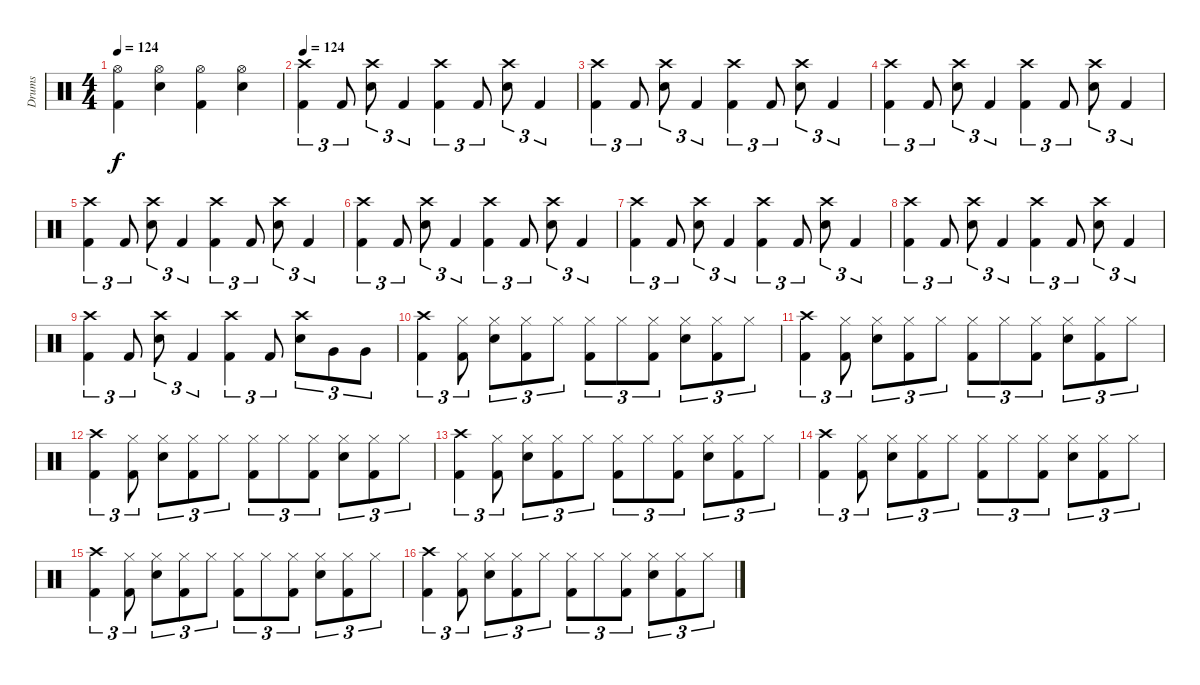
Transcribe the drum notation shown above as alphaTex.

\track ("Drums" "Drums") {instrument percussion}
\staff {score}
\articulation defaults
\ts (4 4)
\tempo 124
\clef neutral
\ks c
("Hi-Hat (open)" "Kick (hit) 2").4{dy f} ("Hi-Hat (open)" "Electric Snare (hit)").4 ("Hi-Hat (open)" "Kick (hit) 2").4 ("Hi-Hat (open)" "Electric Snare (hit)").4 |
\tempo 124
("Crash high (hit)" "Kick (hit) 2").4{tu (3 2)} "Kick (hit) 2".8{tu (3 2)} ("Crash high (hit)" "Electric Snare (hit)").8{tu (3 2)} "Kick (hit) 2".4{tu (3 2)} ("Crash high (hit)" "Kick (hit) 2").4{tu (3 2)} "Kick (hit) 2".8{tu (3 2)} ("Crash high (hit)" "Electric Snare (hit)").8{tu (3 2)} "Kick (hit) 2".4{tu (3 2)} |
("Crash high (hit)" "Kick (hit) 2").4{tu (3 2)} "Kick (hit) 2".8{tu (3 2)} ("Crash high (hit)" "Electric Snare (hit)").8{tu (3 2)} "Kick (hit) 2".4{tu (3 2)} ("Crash high (hit)" "Kick (hit) 2").4{tu (3 2)} "Kick (hit) 2".8{tu (3 2)} ("Crash high (hit)" "Electric Snare (hit)").8{tu (3 2)} "Kick (hit) 2".4{tu (3 2)} |
("Crash high (hit)" "Kick (hit) 2").4{tu (3 2)} "Kick (hit) 2".8{tu (3 2)} ("Crash high (hit)" "Electric Snare (hit)").8{tu (3 2)} "Kick (hit) 2".4{tu (3 2)} ("Crash high (hit)" "Kick (hit) 2").4{tu (3 2)} "Kick (hit) 2".8{tu (3 2)} ("Crash high (hit)" "Electric Snare (hit)").8{tu (3 2)} "Kick (hit) 2".4{tu (3 2)} |
("Crash high (hit)" "Kick (hit) 2").4{tu (3 2)} "Kick (hit) 2".8{tu (3 2)} ("Crash high (hit)" "Electric Snare (hit)").8{tu (3 2)} "Kick (hit) 2".4{tu (3 2)} ("Crash high (hit)" "Kick (hit) 2").4{tu (3 2)} "Kick (hit) 2".8{tu (3 2)} ("Crash high (hit)" "Electric Snare (hit)").8{tu (3 2)} "Kick (hit) 2".4{tu (3 2)} |
("Crash high (hit)" "Kick (hit) 2").4{tu (3 2)} "Kick (hit) 2".8{tu (3 2)} ("Crash high (hit)" "Electric Snare (hit)").8{tu (3 2)} "Kick (hit) 2".4{tu (3 2)} ("Crash high (hit)" "Kick (hit) 2").4{tu (3 2)} "Kick (hit) 2".8{tu (3 2)} ("Crash high (hit)" "Electric Snare (hit)").8{tu (3 2)} "Kick (hit) 2".4{tu (3 2)} |
("Crash high (hit)" "Kick (hit) 2").4{tu (3 2)} "Kick (hit) 2".8{tu (3 2)} ("Crash high (hit)" "Electric Snare (hit)").8{tu (3 2)} "Kick (hit) 2".4{tu (3 2)} ("Crash high (hit)" "Kick (hit) 2").4{tu (3 2)} "Kick (hit) 2".8{tu (3 2)} ("Crash high (hit)" "Electric Snare (hit)").8{tu (3 2)} "Kick (hit) 2".4{tu (3 2)} |
("Crash high (hit)" "Kick (hit) 2").4{tu (3 2)} "Kick (hit) 2".8{tu (3 2)} ("Crash high (hit)" "Electric Snare (hit)").8{tu (3 2)} "Kick (hit) 2".4{tu (3 2)} ("Crash high (hit)" "Kick (hit) 2").4{tu (3 2)} "Kick (hit) 2".8{tu (3 2)} ("Crash high (hit)" "Electric Snare (hit)").8{tu (3 2)} "Kick (hit) 2".4{tu (3 2)} |
("Crash high (hit)" "Kick (hit) 2").4{tu (3 2)} "Kick (hit) 2".8{tu (3 2)} ("Crash high (hit)" "Electric Snare (hit)").8{tu (3 2)} "Kick (hit) 2".4{tu (3 2)} ("Crash high (hit)" "Kick (hit) 2").4{tu (3 2)} "Kick (hit) 2".8{tu (3 2)} ("Crash high (hit)" "Electric Snare (hit)").8{tu (3 2)} "Very Low Tom (hit)".8{tu (3 2)} "Very Low Tom (hit)".8{tu (3 2)} |
("Crash high (hit)" "Kick (hit) 2").4{tu (3 2)} ("Hi-Hat (closed)" "Kick (hit) 2").8{tu (3 2)} ("Hi-Hat (closed)" "Electric Snare (hit)").8{tu (3 2)} ("Hi-Hat (closed)" "Kick (hit) 2").8{tu (3 2)} "Hi-Hat (closed)".8{tu (3 2)} ("Hi-Hat (closed)" "Kick (hit) 2").8{tu (3 2)} "Hi-Hat (closed)".8{tu (3 2)} ("Hi-Hat (closed)" "Kick (hit) 2").8{tu (3 2)} ("Hi-Hat (closed)" "Electric Snare (hit)").8{tu (3 2)} ("Hi-Hat (closed)" "Kick (hit) 2").8{tu (3 2)} "Hi-Hat (closed)".8{tu (3 2)} |
("Crash high (hit)" "Kick (hit) 2").4{tu (3 2)} ("Hi-Hat (closed)" "Kick (hit) 2").8{tu (3 2)} ("Hi-Hat (closed)" "Electric Snare (hit)").8{tu (3 2)} ("Hi-Hat (closed)" "Kick (hit) 2").8{tu (3 2)} "Hi-Hat (closed)".8{tu (3 2)} ("Hi-Hat (closed)" "Kick (hit) 2").8{tu (3 2)} "Hi-Hat (closed)".8{tu (3 2)} ("Hi-Hat (closed)" "Kick (hit) 2").8{tu (3 2)} ("Hi-Hat (closed)" "Electric Snare (hit)").8{tu (3 2)} ("Hi-Hat (closed)" "Kick (hit) 2").8{tu (3 2)} "Hi-Hat (closed)".8{tu (3 2)} |
("Crash high (hit)" "Kick (hit) 2").4{tu (3 2)} ("Hi-Hat (closed)" "Kick (hit) 2").8{tu (3 2)} ("Hi-Hat (closed)" "Electric Snare (hit)").8{tu (3 2)} ("Hi-Hat (closed)" "Kick (hit) 2").8{tu (3 2)} "Hi-Hat (closed)".8{tu (3 2)} ("Hi-Hat (closed)" "Kick (hit) 2").8{tu (3 2)} "Hi-Hat (closed)".8{tu (3 2)} ("Hi-Hat (closed)" "Kick (hit) 2").8{tu (3 2)} ("Hi-Hat (closed)" "Electric Snare (hit)").8{tu (3 2)} ("Hi-Hat (closed)" "Kick (hit) 2").8{tu (3 2)} "Hi-Hat (closed)".8{tu (3 2)} |
("Crash high (hit)" "Kick (hit) 2").4{tu (3 2)} ("Hi-Hat (closed)" "Kick (hit) 2").8{tu (3 2)} ("Hi-Hat (closed)" "Electric Snare (hit)").8{tu (3 2)} ("Hi-Hat (closed)" "Kick (hit) 2").8{tu (3 2)} "Hi-Hat (closed)".8{tu (3 2)} ("Hi-Hat (closed)" "Kick (hit) 2").8{tu (3 2)} "Hi-Hat (closed)".8{tu (3 2)} ("Hi-Hat (closed)" "Kick (hit) 2").8{tu (3 2)} ("Hi-Hat (closed)" "Electric Snare (hit)").8{tu (3 2)} ("Hi-Hat (closed)" "Kick (hit) 2").8{tu (3 2)} "Hi-Hat (closed)".8{tu (3 2)} |
("Crash high (hit)" "Kick (hit) 2").4{tu (3 2)} ("Hi-Hat (closed)" "Kick (hit) 2").8{tu (3 2)} ("Hi-Hat (closed)" "Electric Snare (hit)").8{tu (3 2)} ("Hi-Hat (closed)" "Kick (hit) 2").8{tu (3 2)} "Hi-Hat (closed)".8{tu (3 2)} ("Hi-Hat (closed)" "Kick (hit) 2").8{tu (3 2)} "Hi-Hat (closed)".8{tu (3 2)} ("Hi-Hat (closed)" "Kick (hit) 2").8{tu (3 2)} ("Hi-Hat (closed)" "Electric Snare (hit)").8{tu (3 2)} ("Hi-Hat (closed)" "Kick (hit) 2").8{tu (3 2)} "Hi-Hat (closed)".8{tu (3 2)} |
("Crash high (hit)" "Kick (hit) 2").4{tu (3 2)} ("Hi-Hat (closed)" "Kick (hit) 2").8{tu (3 2)} ("Hi-Hat (closed)" "Electric Snare (hit)").8{tu (3 2)} ("Hi-Hat (closed)" "Kick (hit) 2").8{tu (3 2)} "Hi-Hat (closed)".8{tu (3 2)} ("Hi-Hat (closed)" "Kick (hit) 2").8{tu (3 2)} "Hi-Hat (closed)".8{tu (3 2)} ("Hi-Hat (closed)" "Kick (hit) 2").8{tu (3 2)} ("Hi-Hat (closed)" "Electric Snare (hit)").8{tu (3 2)} ("Hi-Hat (closed)" "Kick (hit) 2").8{tu (3 2)} "Hi-Hat (closed)".8{tu (3 2)} |
("Crash high (hit)" "Kick (hit) 2").4{tu (3 2)} ("Hi-Hat (closed)" "Kick (hit) 2").8{tu (3 2)} ("Hi-Hat (closed)" "Electric Snare (hit)").8{tu (3 2)} ("Hi-Hat (closed)" "Kick (hit) 2").8{tu (3 2)} "Hi-Hat (closed)".8{tu (3 2)} ("Hi-Hat (closed)" "Kick (hit) 2").8{tu (3 2)} "Hi-Hat (closed)".8{tu (3 2)} ("Hi-Hat (closed)" "Kick (hit) 2").8{tu (3 2)} ("Hi-Hat (closed)" "Electric Snare (hit)").8{tu (3 2)} ("Hi-Hat (closed)" "Kick (hit) 2").8{tu (3 2)} "Hi-Hat (closed)".8{tu (3 2)}
